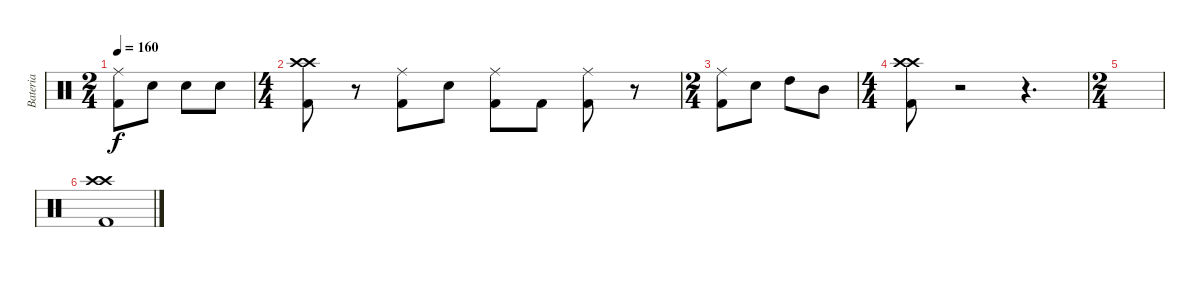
\track ("Bateria" "Bateria") {instrument percussion}
\staff {score}
\articulation defaults
\ts (2 4)
\tempo 160
\clef neutral
\ks c
("Ride (middle)" "Kick (hit) 2").8{dy f} "Snare (hit) 2".8 "Snare (hit) 2".8 "Snare (hit) 2".8 |
\ts (4 4)
("Crash high (hit)" "Crash high (hit)" "Kick (hit) 2").8 r.8 ("Ride (middle)" "Kick (hit) 2").8 "Snare (hit) 2".8 ("Ride (middle)" "Kick (hit) 2").8 "Kick (hit) 2".8 ("Ride (middle)" "Kick (hit) 2").8 r.8 |
\ts (2 4)
("Ride (middle)" "Kick (hit) 2").8 "Snare (hit) 2".8 "High Tom (hit)".8 "Mid Tom (hit)".8 |
\ts (4 4)
("Crash high (hit)" "Crash high (hit)" "Kick (hit) 2").8 r.2 r.4{d} |
\ts (2 4)
|
("Crash high (hit)" "Crash high (hit)" "Kick (hit) 2").1
